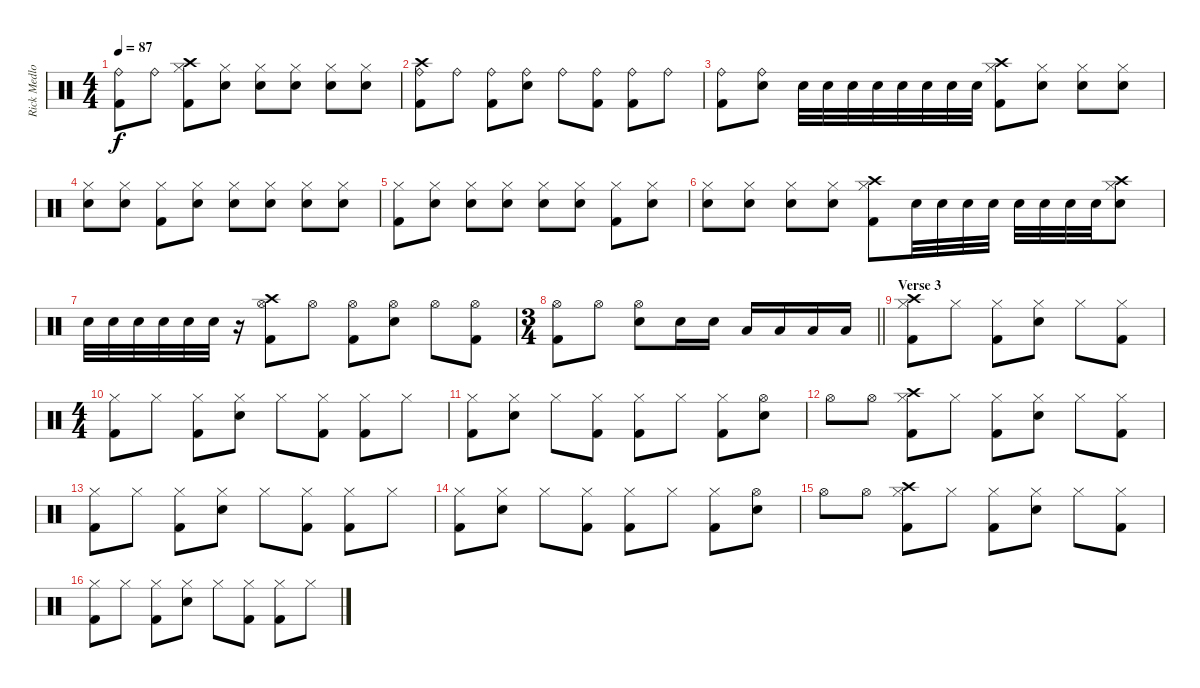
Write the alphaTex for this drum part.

\track ("Rick Medlocke" "Rick Medlo") {instrument percussion}
\staff {score}
\articulation defaults
\ts (4 4)
\tempo 87
\clef neutral
\ks c
("Ride (bell)" "Kick (hit) 2").8{dy f} "Ride (bell)".8 ("Crash high (hit)" "Hi-Hat (closed)" "Kick (hit) 2").8 ("Hi-Hat (closed)" "Electric Snare (hit)").8 ("Hi-Hat (closed)" "Electric Snare (hit)").8 ("Hi-Hat (closed)" "Snare (hit) 2").8 ("Hi-Hat (closed)" "Electric Snare (hit)").8 ("Hi-Hat (closed)" "Electric Snare (hit)").8 |
("Crash high (hit)" "Ride (bell)" "Kick (hit) 2").8 "Ride (bell)".8 ("Ride (bell)" "Kick (hit) 2").8 ("Ride (bell)" "Electric Snare (hit)").8 "Ride (bell)".8 ("Ride (bell)" "Kick (hit) 2").8 ("Ride (bell)" "Kick (hit) 2").8 "Ride (bell)".8 |
("Ride (bell)" "Kick (hit) 2").8 ("Ride (bell)" "Electric Snare (hit)").8 "Electric Snare (hit)".32 "Electric Snare (hit)".32 "Electric Snare (hit)".32 "Electric Snare (hit)".32 "Electric Snare (hit)".32 "Electric Snare (hit)".32 "Electric Snare (hit)".32 "Electric Snare (hit)".32 ("Crash high (hit)" "Hi-Hat (closed)" "Kick (hit) 2").8 ("Hi-Hat (closed)" "Electric Snare (hit)").8 ("Hi-Hat (closed)" "Electric Snare (hit)").8 ("Hi-Hat (closed)" "Snare (hit) 2").8 |
("Hi-Hat (closed)" "Electric Snare (hit)").8 ("Hi-Hat (closed)" "Electric Snare (hit)").8 ("Hi-Hat (closed)" "Kick (hit) 2").8 ("Hi-Hat (closed)" "Electric Snare (hit)").8 ("Hi-Hat (closed)" "Electric Snare (hit)").8 ("Hi-Hat (closed)" "Snare (hit) 2").8 ("Hi-Hat (closed)" "Electric Snare (hit)").8 ("Hi-Hat (closed)" "Electric Snare (hit)").8 |
("Hi-Hat (closed)" "Kick (hit) 2").8 ("Hi-Hat (closed)" "Electric Snare (hit)").8 ("Hi-Hat (closed)" "Electric Snare (hit)").8 ("Hi-Hat (closed)" "Snare (hit) 2").8 ("Hi-Hat (closed)" "Electric Snare (hit)").8 ("Hi-Hat (closed)" "Electric Snare (hit)").8 ("Hi-Hat (closed)" "Kick (hit) 2").8 ("Hi-Hat (closed)" "Electric Snare (hit)").8 |
("Hi-Hat (closed)" "Electric Snare (hit)").8 ("Hi-Hat (closed)" "Snare (hit) 2").8 ("Hi-Hat (closed)" "Electric Snare (hit)").8 ("Hi-Hat (closed)" "Electric Snare (hit)").8 ("Crash high (hit)" "Hi-Hat (closed)" "Kick (hit) 2").8 "Electric Snare (hit)".32 "Electric Snare (hit)".32 "Electric Snare (hit)".32 "Electric Snare (hit)".32 "Electric Snare (hit)".32 "Electric Snare (hit)".32 "Electric Snare (hit)".32 "Electric Snare (hit)".32 ("Crash high (hit)" "Hi-Hat (closed)" "Snare (hit) 2").8 |
"Electric Snare (hit)".32 "Electric Snare (hit)".32 "Electric Snare (hit)".32 "Electric Snare (hit)".32 "Electric Snare (hit)".32 "Electric Snare (hit)".32 r.16 ("Crash high (hit)" "Hi-Hat (open)" "Kick (hit) 2").8 "Hi-Hat (open)".8 ("Hi-Hat (open)" "Kick (hit) 2").8 ("Hi-Hat (open)" "Electric Snare (hit)").8 "Hi-Hat (open)".8 ("Hi-Hat (open)" "Kick (hit) 2").8 |
\ts (3 4)
\barLineRight lightlight
("Hi-Hat (open)" "Kick (hit) 2").8 "Hi-Hat (open)".8 ("Hi-Hat (open)" "Electric Snare (hit)").8 "Electric Snare (hit)".16 "Electric Snare (hit)".16 "Low Tom (hit)".16 "Low Tom (hit)".16 "Low Tom (hit)".16 "Low Tom (hit)".16 |
\section ("" "Verse 3")
("Crash high (hit)" "Hi-Hat (closed)" "Kick (hit) 2").8 "Hi-Hat (closed)".8 ("Hi-Hat (closed)" "Kick (hit) 2").8 ("Hi-Hat (closed)" "Electric Snare (hit)").8 "Hi-Hat (closed)".8 ("Hi-Hat (closed)" "Kick (hit) 2").8 |
\ts (4 4)
("Hi-Hat (closed)" "Kick (hit) 2").8 "Hi-Hat (closed)".8 ("Hi-Hat (closed)" "Kick (hit) 2").8 ("Hi-Hat (closed)" "Electric Snare (hit)").8 "Hi-Hat (closed)".8 ("Hi-Hat (closed)" "Kick (hit) 2").8 ("Hi-Hat (closed)" "Kick (hit) 2").8 "Hi-Hat (closed)".8 |
("Hi-Hat (closed)" "Kick (hit) 2").8 ("Hi-Hat (closed)" "Electric Snare (hit)").8 "Hi-Hat (closed)".8 ("Hi-Hat (closed)" "Kick (hit) 2").8 ("Hi-Hat (closed)" "Kick (hit) 2").8 "Hi-Hat (closed)".8 ("Hi-Hat (closed)" "Kick (hit) 2").8 ("Hi-Hat (open)" "Electric Snare (hit)").8 |
"Hi-Hat (open)".8 "Hi-Hat (open)".8 ("Crash high (hit)" "Hi-Hat (closed)" "Kick (hit) 2").8 "Hi-Hat (closed)".8 ("Hi-Hat (closed)" "Kick (hit) 2").8 ("Hi-Hat (closed)" "Electric Snare (hit)").8 "Hi-Hat (closed)".8 ("Hi-Hat (closed)" "Kick (hit) 2").8 |
("Hi-Hat (closed)" "Kick (hit) 2").8 "Hi-Hat (closed)".8 ("Hi-Hat (closed)" "Kick (hit) 2").8 ("Hi-Hat (closed)" "Electric Snare (hit)").8 "Hi-Hat (closed)".8 ("Hi-Hat (closed)" "Kick (hit) 2").8 ("Hi-Hat (closed)" "Kick (hit) 2").8 "Hi-Hat (closed)".8 |
("Hi-Hat (closed)" "Kick (hit) 2").8 ("Hi-Hat (closed)" "Electric Snare (hit)").8 "Hi-Hat (closed)".8 ("Hi-Hat (closed)" "Kick (hit) 2").8 ("Hi-Hat (closed)" "Kick (hit) 2").8 "Hi-Hat (closed)".8 ("Hi-Hat (closed)" "Kick (hit) 2").8 ("Hi-Hat (open)" "Electric Snare (hit)").8 |
"Hi-Hat (open)".8 "Hi-Hat (open)".8 ("Crash high (hit)" "Hi-Hat (closed)" "Kick (hit) 2").8 "Hi-Hat (closed)".8 ("Hi-Hat (closed)" "Kick (hit) 2").8 ("Hi-Hat (closed)" "Electric Snare (hit)").8 "Hi-Hat (closed)".8 ("Hi-Hat (closed)" "Kick (hit) 2").8 |
("Hi-Hat (closed)" "Kick (hit) 2").8 "Hi-Hat (closed)".8 ("Hi-Hat (closed)" "Kick (hit) 2").8 ("Hi-Hat (closed)" "Electric Snare (hit)").8 "Hi-Hat (closed)".8 ("Hi-Hat (closed)" "Kick (hit) 2").8 ("Hi-Hat (closed)" "Kick (hit) 2").8 "Hi-Hat (closed)".8
